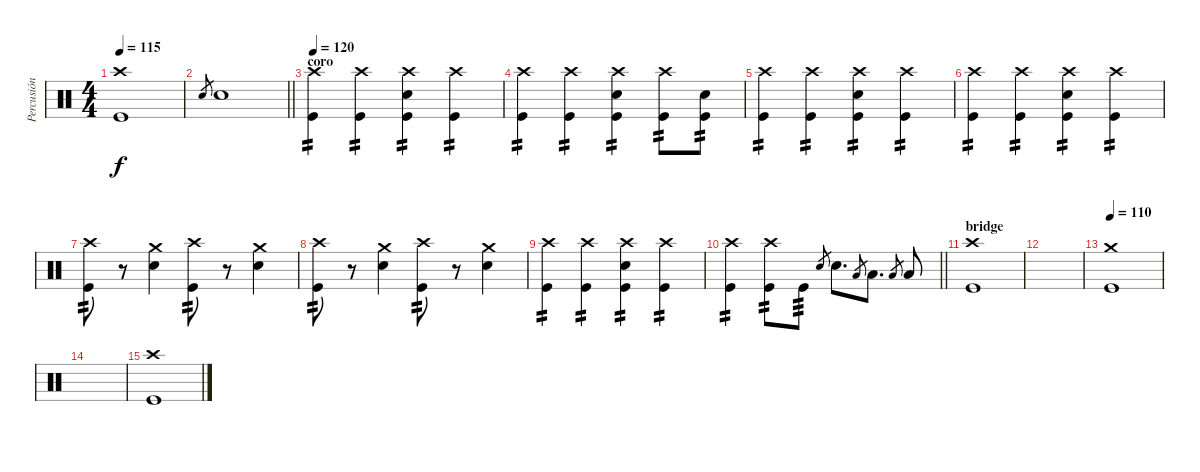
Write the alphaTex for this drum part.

\track ("Percusión" "Percusión") {instrument percussion}
\staff {score}
\articulation defaults
\ts (4 4)
\tempo 115
\clef neutral
\ks aminor
("Crash high (hit)" "Kick (hit)").1{dy f} |
\barLineRight lightlight "Electric Snare (hit)".8{gr} "Electric Snare (hit)".1
|
\section ("" "coro")
\tempo 120
("Crash high (hit)" "Kick (hit)").4{tp 2} ("Crash high (hit)" "Kick (hit)").4{tp 2} ("Crash high (hit)" "Electric Snare (hit)" "Kick (hit)").4{tp 2} ("Crash high (hit)" "Kick (hit)").4{tp 2} |
("Crash high (hit)" "Kick (hit)").4{tp 2} ("Crash high (hit)" "Kick (hit)").4{tp 2} ("Crash high (hit)" "Electric Snare (hit)" "Kick (hit)").4{tp 2} ("Crash high (hit)" "Kick (hit)").8{tp 2} ("Electric Snare (hit)" "Kick (hit)").8{tp 2} |
("Crash high (hit)" "Kick (hit)").4{tp 2} ("Crash high (hit)" "Kick (hit)").4{tp 2} ("Crash high (hit)" "Electric Snare (hit)" "Kick (hit)").4{tp 2} ("Crash high (hit)" "Kick (hit)").4{tp 2} |
("Crash high (hit)" "Kick (hit)").4{tp 2} ("Crash high (hit)" "Kick (hit)").4{tp 2} ("Crash high (hit)" "Electric Snare (hit)" "Kick (hit)").4{tp 2} ("Crash high (hit)" "Kick (hit)").4{tp 2} |
("Crash high (hit)" "Kick (hit)").8{tp 2} r.8 ("Crash medium (hit)" "Electric Snare (hit)").4 ("Crash high (hit)" "Kick (hit)").8{tp 2} r.8 ("Crash medium (hit)" "Electric Snare (hit)").4 |
("Crash high (hit)" "Kick (hit)").8{tp 2} r.8 ("Crash medium (hit)" "Electric Snare (hit)").4 ("Crash high (hit)" "Kick (hit)").8{tp 2} r.8 ("Crash medium (hit)" "Electric Snare (hit)").4 |
("Crash high (hit)" "Kick (hit)").4{tp 2} ("Crash high (hit)" "Kick (hit)").4{tp 2} ("Crash high (hit)" "Electric Snare (hit)" "Kick (hit)").4{tp 2} ("Crash high (hit)" "Kick (hit)").4{tp 2} |
\barLineRight lightlight
("Crash high (hit)" "Kick (hit)").4{tp 2} ("Crash high (hit)" "Kick (hit)").8{tp 2} "Kick (hit)".8{tp 3} "Electric Snare (hit)".8{gr} "Electric Snare (hit)".8{d} "Low Tom (hit)".8{gr} "Low Tom (hit)".8{d} "Low Floor Tom (hit)".8{gr} "Low Floor Tom (hit)".8 |
\section ("" "bridge")
("Crash high (hit)" "Kick (hit)").1 |
|
\tempo 110
("Crash medium (hit)" "Kick (hit)").1 |
|
("Crash high (hit)" "Kick (hit)").1
